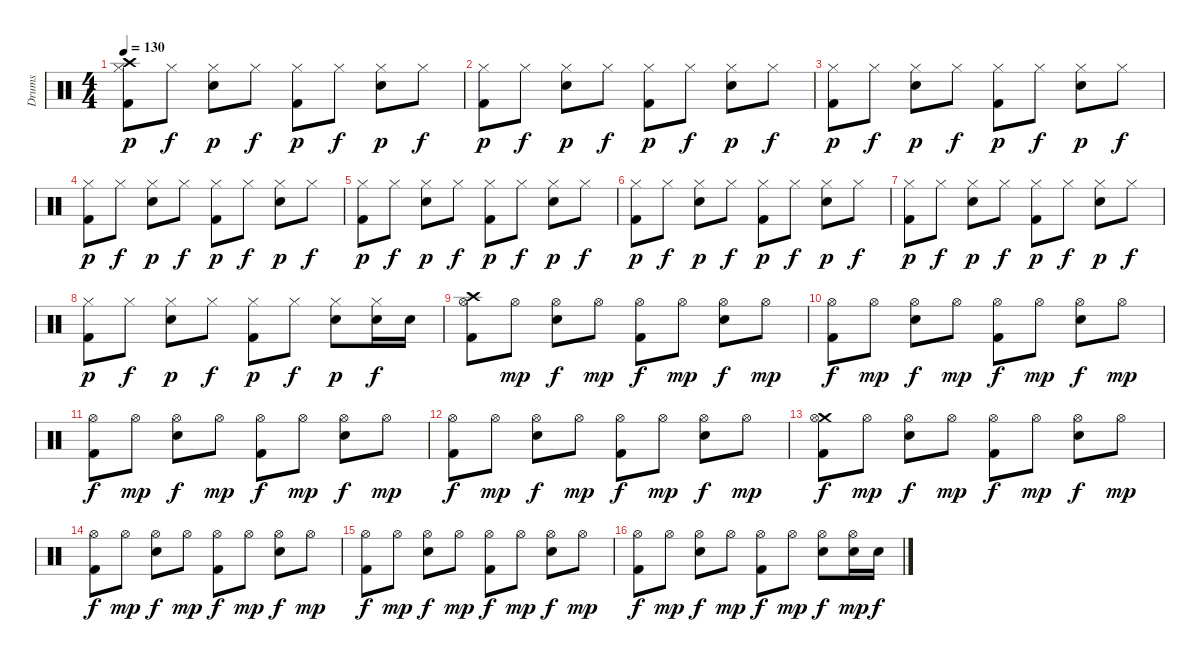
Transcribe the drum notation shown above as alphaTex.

\track ("Drums" "Drums") {instrument percussion}
\staff {score}
\articulation defaults
\ts (4 4)
\tempo 130
\clef neutral
\ks c
("Crash high (hit)" "Hi-Hat (closed)" "Kick (hit) 2").8{dy p} "Hi-Hat (closed)".8{dy f} ("Hi-Hat (closed)" "Electric Snare (hit)").8{dy p} "Hi-Hat (closed)".8{dy f} ("Hi-Hat (closed)" "Kick (hit) 2").8{dy p} "Hi-Hat (closed)".8{dy f} ("Hi-Hat (closed)" "Electric Snare (hit)").8{dy p} "Hi-Hat (closed)".8{dy f} |
("Hi-Hat (closed)" "Kick (hit) 2").8{dy p} "Hi-Hat (closed)".8{dy f} ("Hi-Hat (closed)" "Electric Snare (hit)").8{dy p} "Hi-Hat (closed)".8{dy f} ("Hi-Hat (closed)" "Kick (hit) 2").8{dy p} "Hi-Hat (closed)".8{dy f} ("Hi-Hat (closed)" "Electric Snare (hit)").8{dy p} "Hi-Hat (closed)".8{dy f} |
("Hi-Hat (closed)" "Kick (hit) 2").8{dy p} "Hi-Hat (closed)".8{dy f} ("Hi-Hat (closed)" "Electric Snare (hit)").8{dy p} "Hi-Hat (closed)".8{dy f} ("Hi-Hat (closed)" "Kick (hit) 2").8{dy p} "Hi-Hat (closed)".8{dy f} ("Hi-Hat (closed)" "Electric Snare (hit)").8{dy p} "Hi-Hat (closed)".8{dy f} |
("Hi-Hat (closed)" "Kick (hit) 2").8{dy p} "Hi-Hat (closed)".8{dy f} ("Hi-Hat (closed)" "Electric Snare (hit)").8{dy p} "Hi-Hat (closed)".8{dy f} ("Hi-Hat (closed)" "Kick (hit) 2").8{dy p} "Hi-Hat (closed)".8{dy f} ("Hi-Hat (closed)" "Electric Snare (hit)").8{dy p} "Hi-Hat (closed)".8{dy f} |
("Hi-Hat (closed)" "Kick (hit) 2").8{dy p} "Hi-Hat (closed)".8{dy f} ("Hi-Hat (closed)" "Electric Snare (hit)").8{dy p} "Hi-Hat (closed)".8{dy f} ("Hi-Hat (closed)" "Kick (hit) 2").8{dy p} "Hi-Hat (closed)".8{dy f} ("Hi-Hat (closed)" "Electric Snare (hit)").8{dy p} "Hi-Hat (closed)".8{dy f} |
("Hi-Hat (closed)" "Kick (hit) 2").8{dy p} "Hi-Hat (closed)".8{dy f} ("Hi-Hat (closed)" "Electric Snare (hit)").8{dy p} "Hi-Hat (closed)".8{dy f} ("Hi-Hat (closed)" "Kick (hit) 2").8{dy p} "Hi-Hat (closed)".8{dy f} ("Hi-Hat (closed)" "Electric Snare (hit)").8{dy p} "Hi-Hat (closed)".8{dy f} |
("Hi-Hat (closed)" "Kick (hit) 2").8{dy p} "Hi-Hat (closed)".8{dy f} ("Hi-Hat (closed)" "Electric Snare (hit)").8{dy p} "Hi-Hat (closed)".8{dy f} ("Hi-Hat (closed)" "Kick (hit) 2").8{dy p} "Hi-Hat (closed)".8{dy f} ("Hi-Hat (closed)" "Electric Snare (hit)").8{dy p} "Hi-Hat (closed)".8{dy f} |
("Hi-Hat (closed)" "Kick (hit) 2").8{dy p} "Hi-Hat (closed)".8{dy f} ("Hi-Hat (closed)" "Electric Snare (hit)").8{dy p} "Hi-Hat (closed)".8{dy f} ("Hi-Hat (closed)" "Kick (hit) 2").8{dy p} "Hi-Hat (closed)".8{dy f} ("Hi-Hat (closed)" "Electric Snare (hit)").8{dy p} ("Hi-Hat (closed)" "Electric Snare (hit)").16{dy f} "Electric Snare (hit)".16 |
("Crash high (hit)" "Hi-Hat (open)" "Kick (hit) 2").8 "Hi-Hat (open)".8{dy mp} ("Hi-Hat (open)" "Electric Snare (hit)").8{dy f} "Hi-Hat (open)".8{dy mp} ("Hi-Hat (open)" "Kick (hit) 2").8{dy f} "Hi-Hat (open)".8{dy mp} ("Hi-Hat (open)" "Electric Snare (hit)").8{dy f} "Hi-Hat (open)".8{dy mp} |
("Hi-Hat (open)" "Kick (hit) 2").8{dy f} "Hi-Hat (open)".8{dy mp} ("Hi-Hat (open)" "Electric Snare (hit)").8{dy f} "Hi-Hat (open)".8{dy mp} ("Hi-Hat (open)" "Kick (hit) 2").8{dy f} "Hi-Hat (open)".8{dy mp} ("Hi-Hat (open)" "Electric Snare (hit)").8{dy f} "Hi-Hat (open)".8{dy mp} |
("Hi-Hat (open)" "Kick (hit) 2").8{dy f} "Hi-Hat (open)".8{dy mp} ("Hi-Hat (open)" "Electric Snare (hit)").8{dy f} "Hi-Hat (open)".8{dy mp} ("Hi-Hat (open)" "Kick (hit) 2").8{dy f} "Hi-Hat (open)".8{dy mp} ("Hi-Hat (open)" "Electric Snare (hit)").8{dy f} "Hi-Hat (open)".8{dy mp} |
("Hi-Hat (open)" "Kick (hit) 2").8{dy f} "Hi-Hat (open)".8{dy mp} ("Hi-Hat (open)" "Electric Snare (hit)").8{dy f} "Hi-Hat (open)".8{dy mp} ("Hi-Hat (open)" "Kick (hit) 2").8{dy f} "Hi-Hat (open)".8{dy mp} ("Hi-Hat (open)" "Electric Snare (hit)").8{dy f} "Hi-Hat (open)".8{dy mp} |
("Crash medium (hit)" "Hi-Hat (open)" "Kick (hit) 2").8{dy f} "Hi-Hat (open)".8{dy mp} ("Hi-Hat (open)" "Electric Snare (hit)").8{dy f} "Hi-Hat (open)".8{dy mp} ("Hi-Hat (open)" "Kick (hit) 2").8{dy f} "Hi-Hat (open)".8{dy mp} ("Hi-Hat (open)" "Electric Snare (hit)").8{dy f} "Hi-Hat (open)".8{dy mp} |
("Hi-Hat (open)" "Kick (hit) 2").8{dy f} "Hi-Hat (open)".8{dy mp} ("Hi-Hat (open)" "Electric Snare (hit)").8{dy f} "Hi-Hat (open)".8{dy mp} ("Hi-Hat (open)" "Kick (hit) 2").8{dy f} "Hi-Hat (open)".8{dy mp} ("Hi-Hat (open)" "Electric Snare (hit)").8{dy f} "Hi-Hat (open)".8{dy mp} |
("Hi-Hat (open)" "Kick (hit) 2").8{dy f} "Hi-Hat (open)".8{dy mp} ("Hi-Hat (open)" "Electric Snare (hit)").8{dy f} "Hi-Hat (open)".8{dy mp} ("Hi-Hat (open)" "Kick (hit) 2").8{dy f} "Hi-Hat (open)".8{dy mp} ("Hi-Hat (open)" "Electric Snare (hit)").8{dy f} "Hi-Hat (open)".8{dy mp} |
("Hi-Hat (open)" "Kick (hit) 2").8{dy f} "Hi-Hat (open)".8{dy mp} ("Hi-Hat (open)" "Electric Snare (hit)").8{dy f} "Hi-Hat (open)".8{dy mp} ("Hi-Hat (open)" "Kick (hit) 2").8{dy f} "Hi-Hat (open)".8{dy mp} ("Hi-Hat (open)" "Electric Snare (hit)").8{dy f} ("Hi-Hat (open)" "Electric Snare (hit)").16{dy mp} "Electric Snare (hit)".16{dy f}
